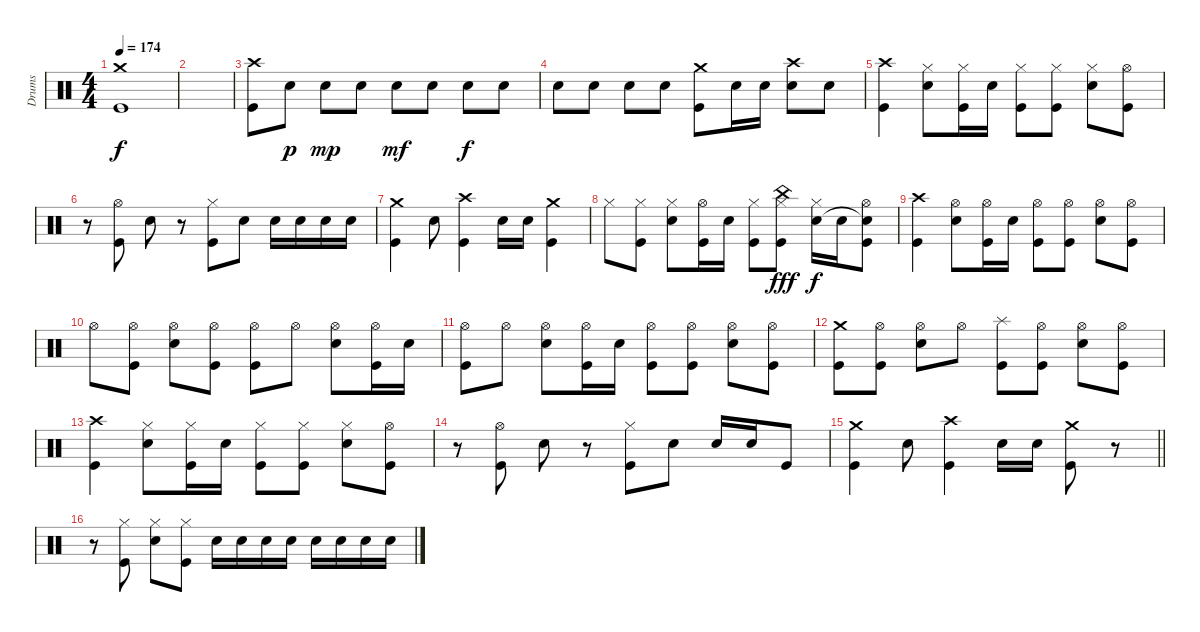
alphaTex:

\track ("Drums" "Drums") {instrument percussion}
\staff {score}
\articulation defaults
\ts (4 4)
\tempo 174
\clef neutral
\ks c
("Crash medium (hit)" "Kick (hit)").1{dy f} |
|
("Crash high (hit)" "Kick (hit)").8 "Electric Snare (hit)".8{dy p} "Electric Snare (hit)".8{dy mp} "Electric Snare (hit)".8 "Electric Snare (hit)".8{dy mf} "Electric Snare (hit)".8 "Electric Snare (hit)".8{dy f} "Electric Snare (hit)".8 |
"Electric Snare (hit)".8 "Electric Snare (hit)".8 "Electric Snare (hit)".8 "Electric Snare (hit)".8 ("Crash medium (hit)" "Kick (hit)").8 "Electric Snare (hit)".16 "Electric Snare (hit)".16 ("Crash high (hit)" "Electric Snare (hit)").8 "Electric Snare (hit)".8 |
("Crash high (hit)" "Kick (hit)").4 ("Hi-Hat (closed)" "Electric Snare (hit)").8 ("Hi-Hat (closed)" "Kick (hit)").16 "Electric Snare (hit)".16 ("Hi-Hat (closed)" "Kick (hit)").8 ("Hi-Hat (closed)" "Kick (hit)").8 ("Hi-Hat (closed)" "Electric Snare (hit)").8 ("Hi-Hat (open)" "Kick (hit)").8 |
r.8 ("Hi-Hat (open)" "Kick (hit)").8 "Electric Snare (hit)".8 r.8 ("Hi-Hat (closed)" "Kick (hit)").8 "Electric Snare (hit)".8 "Electric Snare (hit)".16 "Electric Snare (hit)".16 "Electric Snare (hit)".16 "Electric Snare (hit)".16 |
("Crash medium (hit)" "Kick (hit)").4 "Electric Snare (hit)".8 ("Crash high (hit)" "Kick (hit)").4 "Electric Snare (hit)".16 "Electric Snare (hit)".16 ("Crash medium (hit)" "Kick (hit)").4 |
"Hi-Hat (closed)".8 ("Hi-Hat (closed)" "Kick (hit)").8 ("Hi-Hat (closed)" "Electric Snare (hit)").8 ("Hi-Hat (open)" "Kick (hit)").16 "Electric Snare (hit)".16 ("Hi-Hat (closed)" "Kick (hit)").8 ("Hi-Hat (closed)" "China (hit)" "Kick (hit)").8{dy fff} ("Hi-Hat (closed)" "Electric Snare (hit)").16{dy f} "Electric Snare (hit)".16 ("Hi-Hat (open)" "Snare (hit)"{t} "Kick (hit)").8 |
("Crash high (hit)" "Kick (hit)").4 ("Hi-Hat (open)" "Electric Snare (hit)").8 ("Hi-Hat (open)" "Kick (hit)").16 "Electric Snare (hit)".16 ("Hi-Hat (open)" "Kick (hit)").8 ("Hi-Hat (open)" "Kick (hit)").8 ("Hi-Hat (open)" "Electric Snare (hit)").8 ("Hi-Hat (open)" "Kick (hit)").8 |
"Hi-Hat (open)".8 ("Hi-Hat (open)" "Kick (hit)").8 ("Hi-Hat (open)" "Electric Snare (hit)").8 ("Hi-Hat (open)" "Kick (hit)").8 ("Hi-Hat (open)" "Kick (hit)").8 "Hi-Hat (open)".8 ("Hi-Hat (open)" "Electric Snare (hit)").8 ("Hi-Hat (open)" "Kick (hit)").16 "Electric Snare (hit)".16 |
("Hi-Hat (open)" "Kick (hit)").8 "Hi-Hat (open)".8 ("Hi-Hat (open)" "Electric Snare (hit)").8 ("Hi-Hat (open)" "Kick (hit)").16 "Electric Snare (hit)".16 ("Hi-Hat (open)" "Kick (hit)").8 ("Hi-Hat (open)" "Kick (hit)").8 ("Hi-Hat (open)" "Electric Snare (hit)").8 ("Hi-Hat (open)" "Kick (hit)").8 |
("Crash medium (hit)" "Kick (hit)").8 ("Hi-Hat (open)" "Kick (hit)").8 ("Hi-Hat (open)" "Electric Snare (hit)").8 "Hi-Hat (open)".8 ("Splash (hit)" "Kick (hit)").8 ("Hi-Hat (open)" "Kick (hit)").8 ("Hi-Hat (open)" "Electric Snare (hit)").8 ("Hi-Hat (open)" "Kick (hit)").8 |
("Crash high (hit)" "Kick (hit)").4 ("Hi-Hat (closed)" "Electric Snare (hit)").8 ("Hi-Hat (closed)" "Kick (hit)").16 "Electric Snare (hit)".16 ("Hi-Hat (closed)" "Kick (hit)").8 ("Hi-Hat (closed)" "Kick (hit)").8 ("Hi-Hat (closed)" "Electric Snare (hit)").8 ("Hi-Hat (open)" "Kick (hit)").8 |
r.8 ("Hi-Hat (open)" "Kick (hit)").8 "Electric Snare (hit)".8 r.8 ("Hi-Hat (closed)" "Kick (hit)").8 "Electric Snare (hit)".8 "Electric Snare (hit)".16 "Electric Snare (hit)".16 "Kick (hit)".8 |
\barLineRight lightlight
("Crash medium (hit)" "Kick (hit)").4 "Electric Snare (hit)".8 ("Crash high (hit)" "Kick (hit)").4 "Electric Snare (hit)".16 "Electric Snare (hit)".16 ("Crash medium (hit)" "Kick (hit)").8 r.8 |
r.8 ("Hi-Hat (closed)" "Kick (hit)").8 ("Hi-Hat (closed)" "Electric Snare (hit)").8 ("Hi-Hat (closed)" "Kick (hit)").8 "Electric Snare (hit)".16 "Electric Snare (hit)".16 "Electric Snare (hit)".16 "Electric Snare (hit)".16 "Electric Snare (hit)".16 "Electric Snare (hit)".16 "Electric Snare (hit)".16 "Electric Snare (hit)".16
